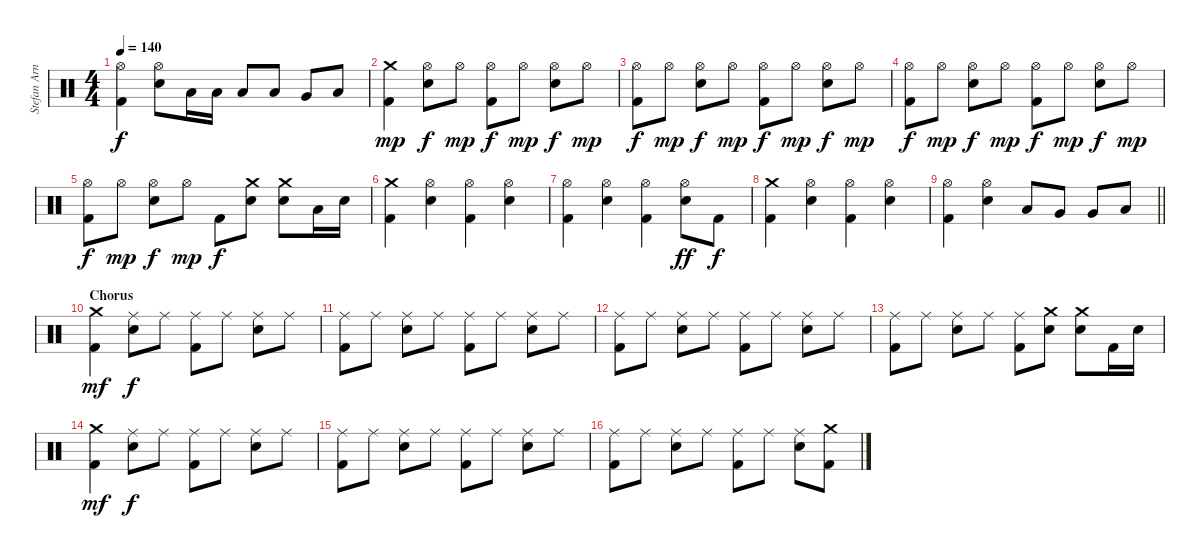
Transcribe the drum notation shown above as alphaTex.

\track ("Stefan Arnold" "Stefan Arn") {instrument percussion}
\staff {score}
\articulation defaults
\ts (4 4)
\tempo 140
\clef neutral
\ks c
("Hi-Hat (open)" "Kick (hit) 2").4{dy f} ("Hi-Hat (open)" "Electric Snare (hit)").8 "Low Tom (hit)".16 "Low Tom (hit)".16 "Low Tom (hit)".8 "Low Tom (hit)".8 "Very Low Tom (hit)".8 "Low Floor Tom (hit)".8 |
("Crash medium (hit)" "Kick (hit) 2").4{dy mp} ("Hi-Hat (open)" "Electric Snare (hit)").8{dy f} "Hi-Hat (open)".8{dy mp} ("Hi-Hat (open)" "Kick (hit) 2").8{dy f} "Hi-Hat (open)".8{dy mp} ("Hi-Hat (open)" "Electric Snare (hit)").8{dy f} "Hi-Hat (open)".8{dy mp} |
("Hi-Hat (open)" "Kick (hit) 2").8{dy f} "Hi-Hat (open)".8{dy mp} ("Hi-Hat (open)" "Electric Snare (hit)").8{dy f} "Hi-Hat (open)".8{dy mp} ("Hi-Hat (open)" "Kick (hit) 2").8{dy f} "Hi-Hat (open)".8{dy mp} ("Hi-Hat (open)" "Electric Snare (hit)").8{dy f} "Hi-Hat (open)".8{dy mp} |
("Hi-Hat (open)" "Kick (hit) 2").8{dy f} "Hi-Hat (open)".8{dy mp} ("Hi-Hat (open)" "Electric Snare (hit)").8{dy f} "Hi-Hat (open)".8{dy mp} ("Hi-Hat (open)" "Kick (hit) 2").8{dy f} "Hi-Hat (open)".8{dy mp} ("Hi-Hat (open)" "Electric Snare (hit)").8{dy f} "Hi-Hat (open)".8{dy mp} |
("Hi-Hat (open)" "Kick (hit) 2").8{dy f} "Hi-Hat (open)".8{dy mp} ("Hi-Hat (open)" "Electric Snare (hit)").8{dy f} "Hi-Hat (open)".8{dy mp} "Kick (hit) 2".8{dy f} ("Crash medium (hit)" "Electric Snare (hit)").8 ("Crash medium (hit)" "Electric Snare (hit)").8 "Low Tom (hit)".16 "Electric Snare (hit)".16 |
("Crash medium (hit)" "Kick (hit) 2").4 ("Hi-Hat (open)" "Electric Snare (hit)").4 ("Hi-Hat (open)" "Kick (hit) 2").4 ("Hi-Hat (open)" "Electric Snare (hit)").4 |
("Hi-Hat (open)" "Kick (hit) 2").4 ("Hi-Hat (open)" "Electric Snare (hit)").4 ("Hi-Hat (open)" "Kick (hit) 2").4 ("Hi-Hat (open)" "Electric Snare (hit)").8{dy ff} "Kick (hit) 2".8{dy f} |
("Crash medium (hit)" "Kick (hit) 2").4 ("Hi-Hat (open)" "Electric Snare (hit)").4 ("Hi-Hat (open)" "Kick (hit) 2").4 ("Hi-Hat (open)" "Electric Snare (hit)").4 |
\barLineRight lightlight
("Hi-Hat (open)" "Kick (hit) 2").4 ("Hi-Hat (open)" "Electric Snare (hit)").4 "Low Tom (hit)".8 "Very Low Tom (hit)".8 "Very Low Tom (hit)".8 "Low Floor Tom (hit)".8 |
\section ("" "Chorus")
("Crash medium (hit)" "Kick (hit) 2").4{dy mf} ("Ride (middle)" "Electric Snare (hit)").8{dy f} "Ride (middle)".8 ("Ride (middle)" "Kick (hit) 2").8 "Ride (middle)".8 ("Ride (middle)" "Electric Snare (hit)").8 "Ride (middle)".8 |
("Ride (middle)" "Kick (hit) 2").8 "Ride (middle)".8 ("Ride (middle)" "Electric Snare (hit)").8 "Ride (middle)".8 ("Ride (middle)" "Kick (hit) 2").8 "Ride (middle)".8 ("Ride (middle)" "Electric Snare (hit)").8 "Ride (middle)".8 |
("Ride (middle)" "Kick (hit) 2").8 "Ride (middle)".8 ("Ride (middle)" "Electric Snare (hit)").8 "Ride (middle)".8 ("Ride (middle)" "Kick (hit) 2").8 "Ride (middle)".8 ("Ride (middle)" "Electric Snare (hit)").8 "Ride (middle)".8 |
("Ride (middle)" "Kick (hit) 2").8 "Ride (middle)".8 ("Ride (middle)" "Electric Snare (hit)").8 "Ride (middle)".8 ("Ride (middle)" "Kick (hit) 2").8 ("Crash medium (hit)" "Electric Snare (hit)").8 ("Crash medium (hit)" "Electric Snare (hit)").8 "Kick (hit) 2".16 "Electric Snare (hit)".16 |
("Crash medium (hit)" "Kick (hit) 2").4{dy mf} ("Ride (middle)" "Electric Snare (hit)").8{dy f} "Ride (middle)".8 ("Ride (middle)" "Kick (hit) 2").8 "Ride (middle)".8 ("Ride (middle)" "Electric Snare (hit)").8 "Ride (middle)".8 |
("Ride (middle)" "Kick (hit) 2").8 "Ride (middle)".8 ("Ride (middle)" "Electric Snare (hit)").8 "Ride (middle)".8 ("Ride (middle)" "Kick (hit) 2").8 "Ride (middle)".8 ("Ride (middle)" "Electric Snare (hit)").8 "Ride (middle)".8 |
("Ride (middle)" "Kick (hit) 2").8 "Ride (middle)".8 ("Ride (middle)" "Electric Snare (hit)").8 "Ride (middle)".8 ("Ride (middle)" "Kick (hit) 2").8 "Ride (middle)".8 ("Ride (middle)" "Electric Snare (hit)").8 ("Crash medium (hit)" "Kick (hit) 2").8
